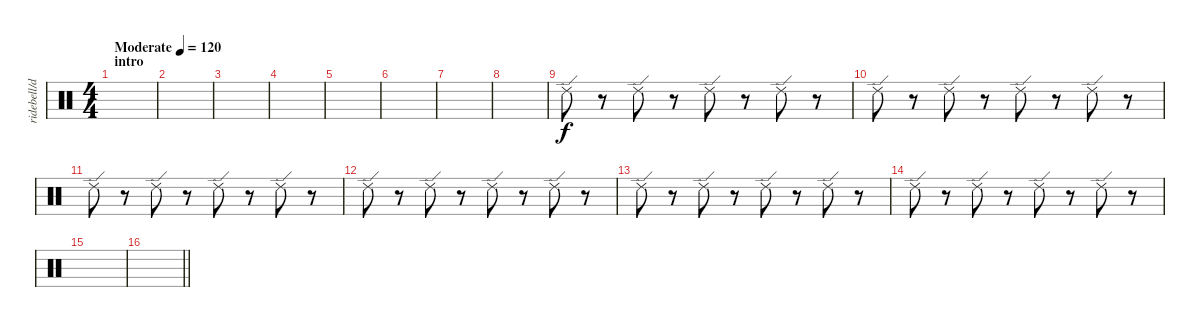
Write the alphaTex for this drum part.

\track ("ridebell/drum" "ridebell/d") {instrument percussion}
\staff {score}
\articulation defaults
\ts (4 4)
\section ("" "intro")
\tempo (120 "Moderate")
\clef neutral
\ks c
|
|
|
|
|
|
|
|
"Ride (edge) 2".8 r.8 "Ride (edge) 2".8 r.8 "Ride (edge) 2".8 r.8 "Ride (edge) 2".8 r.8 |
"Ride (edge) 2".8 r.8 "Ride (edge) 2".8 r.8 "Ride (edge) 2".8 r.8 "Ride (edge) 2".8 r.8 |
"Ride (edge) 2".8 r.8 "Ride (edge) 2".8 r.8 "Ride (edge) 2".8 r.8 "Ride (edge) 2".8 r.8 |
"Ride (edge) 2".8 r.8 "Ride (edge) 2".8 r.8 "Ride (edge) 2".8 r.8 "Ride (edge) 2".8 r.8 |
"Ride (edge) 2".8 r.8 "Ride (edge) 2".8 r.8 "Ride (edge) 2".8 r.8 "Ride (edge) 2".8 r.8 |
"Ride (edge) 2".8 r.8 "Ride (edge) 2".8 r.8 "Ride (edge) 2".8 r.8 "Ride (edge) 2".8 r.8 |
|
\barLineRight lightlight
